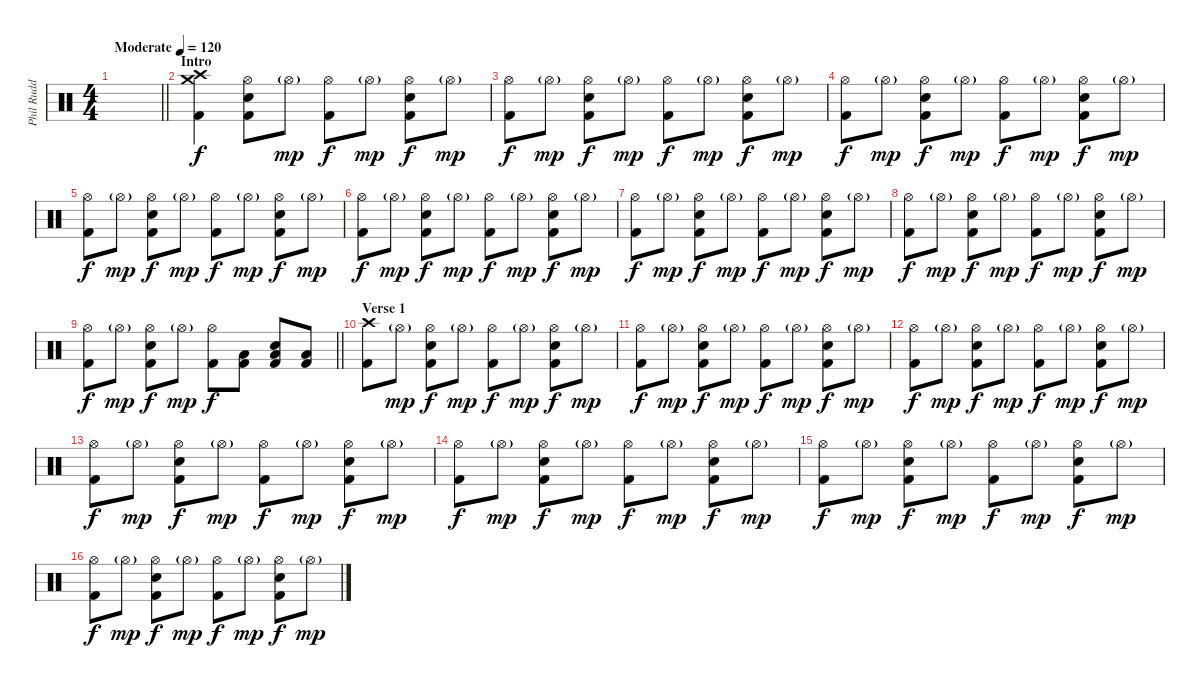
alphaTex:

\track ("Phil Rudd" "Phil Rudd") {instrument percussion}
\staff {score}
\articulation defaults
\ts (4 4)
\tempo (120 "Moderate")
\clef neutral
\barLineRight lightlight
\ks c
|
\section ("" "Intro")
("Crash high (hit)" "Crash medium (hit)" "Kick (hit) 2").4 ("Hi-Hat (open)" "Electric Snare (hit)" "Kick (hit) 2").8 "Hi-Hat (open)"{g}.8{dy mp} ("Hi-Hat (open)" "Kick (hit) 2").8{dy f} "Hi-Hat (open)"{g}.8{dy mp} ("Hi-Hat (open)" "Electric Snare (hit)" "Kick (hit) 2").8{dy f} "Hi-Hat (open)"{g}.8{dy mp} |
("Hi-Hat (open)" "Kick (hit) 2").8{dy f} "Hi-Hat (open)"{g}.8{dy mp} ("Hi-Hat (open)" "Electric Snare (hit)" "Kick (hit) 2").8{dy f} "Hi-Hat (open)"{g}.8{dy mp} ("Hi-Hat (open)" "Kick (hit) 2").8{dy f} "Hi-Hat (open)"{g}.8{dy mp} ("Hi-Hat (open)" "Electric Snare (hit)" "Kick (hit) 2").8{dy f} "Hi-Hat (open)"{g}.8{dy mp} |
("Hi-Hat (open)" "Kick (hit) 2").8{dy f} "Hi-Hat (open)"{g}.8{dy mp} ("Hi-Hat (open)" "Electric Snare (hit)" "Kick (hit) 2").8{dy f} "Hi-Hat (open)"{g}.8{dy mp} ("Hi-Hat (open)" "Kick (hit) 2").8{dy f} "Hi-Hat (open)"{g}.8{dy mp} ("Hi-Hat (open)" "Electric Snare (hit)" "Kick (hit) 2").8{dy f} "Hi-Hat (open)"{g}.8{dy mp} |
("Hi-Hat (open)" "Kick (hit) 2").8{dy f} "Hi-Hat (open)"{g}.8{dy mp} ("Hi-Hat (open)" "Electric Snare (hit)" "Kick (hit) 2").8{dy f} "Hi-Hat (open)"{g}.8{dy mp} ("Hi-Hat (open)" "Kick (hit) 2").8{dy f} "Hi-Hat (open)"{g}.8{dy mp} ("Hi-Hat (open)" "Electric Snare (hit)" "Kick (hit) 2").8{dy f} "Hi-Hat (open)"{g}.8{dy mp} |
("Hi-Hat (open)" "Kick (hit) 2").8{dy f} "Hi-Hat (open)"{g}.8{dy mp} ("Hi-Hat (open)" "Electric Snare (hit)" "Kick (hit) 2").8{dy f} "Hi-Hat (open)"{g}.8{dy mp} ("Hi-Hat (open)" "Kick (hit) 2").8{dy f} "Hi-Hat (open)"{g}.8{dy mp} ("Hi-Hat (open)" "Electric Snare (hit)" "Kick (hit) 2").8{dy f} "Hi-Hat (open)"{g}.8{dy mp} |
("Hi-Hat (open)" "Kick (hit) 2").8{dy f} "Hi-Hat (open)"{g}.8{dy mp} ("Hi-Hat (open)" "Electric Snare (hit)" "Kick (hit) 2").8{dy f} "Hi-Hat (open)"{g}.8{dy mp} ("Hi-Hat (open)" "Kick (hit) 2").8{dy f} "Hi-Hat (open)"{g}.8{dy mp} ("Hi-Hat (open)" "Electric Snare (hit)" "Kick (hit) 2").8{dy f} "Hi-Hat (open)"{g}.8{dy mp} |
("Hi-Hat (open)" "Kick (hit) 2").8{dy f} "Hi-Hat (open)"{g}.8{dy mp} ("Hi-Hat (open)" "Electric Snare (hit)" "Kick (hit) 2").8{dy f} "Hi-Hat (open)"{g}.8{dy mp} ("Hi-Hat (open)" "Kick (hit) 2").8{dy f} "Hi-Hat (open)"{g}.8{dy mp} ("Hi-Hat (open)" "Electric Snare (hit)" "Kick (hit) 2").8{dy f} "Hi-Hat (open)"{g}.8{dy mp} |
\barLineRight lightlight
("Hi-Hat (open)" "Kick (hit) 2").8{dy f} "Hi-Hat (open)"{g}.8{dy mp} ("Hi-Hat (open)" "Electric Snare (hit)" "Kick (hit) 2").8{dy f} "Hi-Hat (open)"{g}.8{dy mp} ("Hi-Hat (open)" "Kick (hit) 2").8{dy f} ("Low Floor Tom (hit)" "Kick (hit) 2").8 ("Electric Snare (hit)" "Low Floor Tom (hit)" "Kick (hit) 2").8 ("Low Floor Tom (hit)" "Kick (hit) 2").8 |
\section ("" "Verse 1")
("Crash high (hit)" "Kick (hit) 2").8 "Hi-Hat (open)"{g}.8{dy mp} ("Hi-Hat (open)" "Electric Snare (hit)" "Kick (hit) 2").8{dy f} "Hi-Hat (open)"{g}.8{dy mp} ("Hi-Hat (open)" "Kick (hit) 2").8{dy f} "Hi-Hat (open)"{g}.8{dy mp} ("Hi-Hat (open)" "Electric Snare (hit)" "Kick (hit) 2").8{dy f} "Hi-Hat (open)"{g}.8{dy mp} |
("Hi-Hat (open)" "Kick (hit) 2").8{dy f} "Hi-Hat (open)"{g}.8{dy mp} ("Hi-Hat (open)" "Electric Snare (hit)" "Kick (hit) 2").8{dy f} "Hi-Hat (open)"{g}.8{dy mp} ("Hi-Hat (open)" "Kick (hit) 2").8{dy f} "Hi-Hat (open)"{g}.8{dy mp} ("Hi-Hat (open)" "Electric Snare (hit)" "Kick (hit) 2").8{dy f} "Hi-Hat (open)"{g}.8{dy mp} |
("Hi-Hat (open)" "Kick (hit) 2").8{dy f} "Hi-Hat (open)"{g}.8{dy mp} ("Hi-Hat (open)" "Electric Snare (hit)" "Kick (hit) 2").8{dy f} "Hi-Hat (open)"{g}.8{dy mp} ("Hi-Hat (open)" "Kick (hit) 2").8{dy f} "Hi-Hat (open)"{g}.8{dy mp} ("Hi-Hat (open)" "Electric Snare (hit)" "Kick (hit) 2").8{dy f} "Hi-Hat (open)"{g}.8{dy mp} |
("Hi-Hat (open)" "Kick (hit) 2").8{dy f} "Hi-Hat (open)"{g}.8{dy mp} ("Hi-Hat (open)" "Electric Snare (hit)" "Kick (hit) 2").8{dy f} "Hi-Hat (open)"{g}.8{dy mp} ("Hi-Hat (open)" "Kick (hit) 2").8{dy f} "Hi-Hat (open)"{g}.8{dy mp} ("Hi-Hat (open)" "Electric Snare (hit)" "Kick (hit) 2").8{dy f} "Hi-Hat (open)"{g}.8{dy mp} |
("Hi-Hat (open)" "Kick (hit) 2").8{dy f} "Hi-Hat (open)"{g}.8{dy mp} ("Hi-Hat (open)" "Electric Snare (hit)" "Kick (hit) 2").8{dy f} "Hi-Hat (open)"{g}.8{dy mp} ("Hi-Hat (open)" "Kick (hit) 2").8{dy f} "Hi-Hat (open)"{g}.8{dy mp} ("Hi-Hat (open)" "Electric Snare (hit)" "Kick (hit) 2").8{dy f} "Hi-Hat (open)"{g}.8{dy mp} |
("Hi-Hat (open)" "Kick (hit) 2").8{dy f} "Hi-Hat (open)"{g}.8{dy mp} ("Hi-Hat (open)" "Electric Snare (hit)" "Kick (hit) 2").8{dy f} "Hi-Hat (open)"{g}.8{dy mp} ("Hi-Hat (open)" "Kick (hit) 2").8{dy f} "Hi-Hat (open)"{g}.8{dy mp} ("Hi-Hat (open)" "Electric Snare (hit)" "Kick (hit) 2").8{dy f} "Hi-Hat (open)"{g}.8{dy mp} |
("Hi-Hat (open)" "Kick (hit) 2").8{dy f} "Hi-Hat (open)"{g}.8{dy mp} ("Hi-Hat (open)" "Electric Snare (hit)" "Kick (hit) 2").8{dy f} "Hi-Hat (open)"{g}.8{dy mp} ("Hi-Hat (open)" "Kick (hit) 2").8{dy f} "Hi-Hat (open)"{g}.8{dy mp} ("Hi-Hat (open)" "Electric Snare (hit)" "Kick (hit) 2").8{dy f} "Hi-Hat (open)"{g}.8{dy mp}
